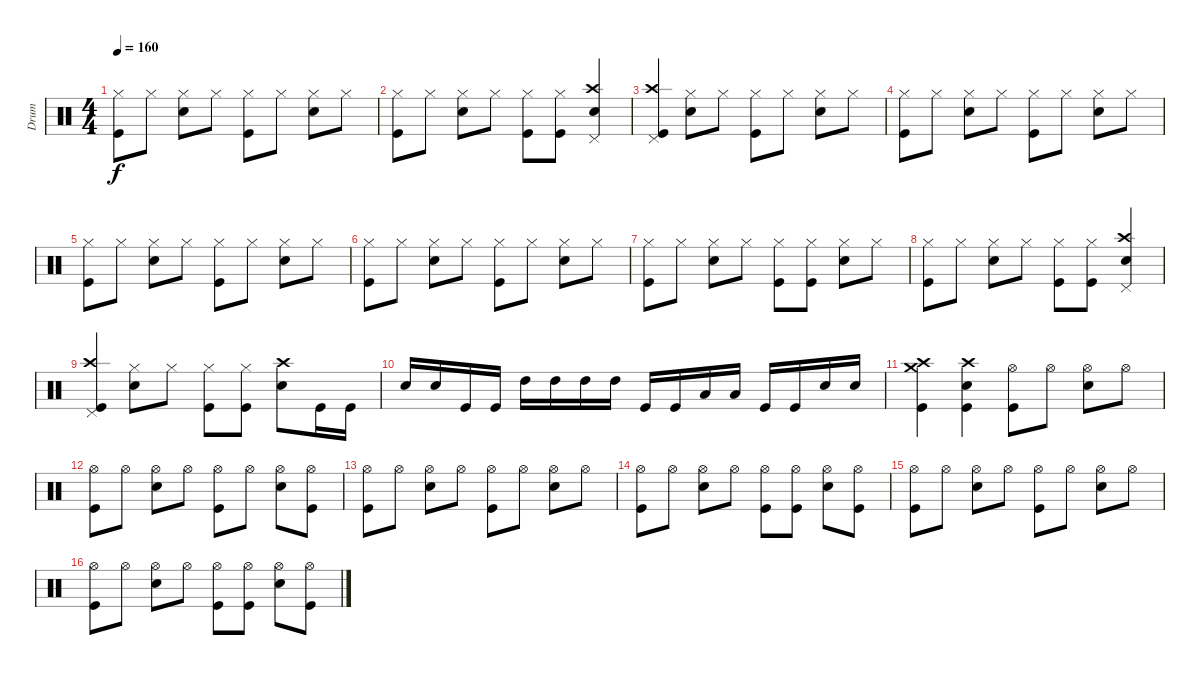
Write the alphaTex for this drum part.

\track ("Drum" "Drum") {instrument percussion}
\staff {score}
\articulation defaults
\ts (4 4)
\tempo 160
\clef neutral
\ks c
("Hi-Hat (closed)" "Kick (hit)").8{dy f} "Hi-Hat (closed)".8 ("Hi-Hat (closed)" "Snare (hit) 2").8 "Hi-Hat (closed)".8 ("Hi-Hat (closed)" "Kick (hit)").8 "Hi-Hat (closed)".8 ("Hi-Hat (closed)" "Snare (hit) 2").8 "Hi-Hat (closed)".8 |
("Hi-Hat (closed)" "Kick (hit)").8 "Hi-Hat (closed)".8 ("Hi-Hat (closed)" "Snare (hit) 2").8 "Hi-Hat (closed)".8 ("Hi-Hat (closed)" "Kick (hit)").8 ("Hi-Hat (closed)" "Kick (hit)").8 ("Crash high (hit)" "Pedal Hi-Hat (hit)" "Snare (hit) 2").4 |
("Crash high (hit)" "Pedal Hi-Hat (hit)" "Kick (hit)").4 ("Hi-Hat (closed)" "Snare (hit) 2").8 "Hi-Hat (closed)".8 ("Hi-Hat (closed)" "Kick (hit)").8 "Hi-Hat (closed)".8 ("Hi-Hat (closed)" "Snare (hit) 2").8 "Hi-Hat (closed)".8 |
("Hi-Hat (closed)" "Kick (hit)").8 "Hi-Hat (closed)".8 ("Hi-Hat (closed)" "Snare (hit) 2").8 "Hi-Hat (closed)".8 ("Hi-Hat (closed)" "Kick (hit)").8 "Hi-Hat (closed)".8 ("Hi-Hat (closed)" "Snare (hit) 2").8 "Hi-Hat (closed)".8 |
("Hi-Hat (closed)" "Kick (hit)").8 "Hi-Hat (closed)".8 ("Hi-Hat (closed)" "Snare (hit) 2").8 "Hi-Hat (closed)".8 ("Hi-Hat (closed)" "Kick (hit)").8 "Hi-Hat (closed)".8 ("Hi-Hat (closed)" "Snare (hit) 2").8 "Hi-Hat (closed)".8 |
("Hi-Hat (closed)" "Kick (hit)").8 "Hi-Hat (closed)".8 ("Hi-Hat (closed)" "Snare (hit) 2").8 "Hi-Hat (closed)".8 ("Hi-Hat (closed)" "Kick (hit)").8 "Hi-Hat (closed)".8 ("Hi-Hat (closed)" "Snare (hit) 2").8 "Hi-Hat (closed)".8 |
("Hi-Hat (closed)" "Kick (hit)").8 "Hi-Hat (closed)".8 ("Hi-Hat (closed)" "Snare (hit) 2").8 "Hi-Hat (closed)".8 ("Hi-Hat (closed)" "Kick (hit)").8 ("Hi-Hat (closed)" "Kick (hit)").8 ("Hi-Hat (closed)" "Snare (hit) 2").8 "Hi-Hat (closed)".8 |
("Hi-Hat (closed)" "Kick (hit)").8 "Hi-Hat (closed)".8 ("Hi-Hat (closed)" "Snare (hit) 2").8 "Hi-Hat (closed)".8 ("Hi-Hat (closed)" "Kick (hit)").8 ("Hi-Hat (closed)" "Kick (hit)").8 ("Crash high (hit)" "Pedal Hi-Hat (hit)" "Snare (hit) 2").4 |
("Crash high (hit)" "Pedal Hi-Hat (hit)" "Kick (hit)").4 ("Hi-Hat (closed)" "Snare (hit) 2").8 "Hi-Hat (closed)".8 ("Hi-Hat (closed)" "Kick (hit)").8 ("Hi-Hat (closed)" "Kick (hit)").8 ("Crash high (hit)" "Snare (hit) 2").8 "Kick (hit)".16 "Kick (hit)".16 |
"Snare (hit) 2".16 "Snare (hit) 2".16 "Kick (hit)".16 "Kick (hit)".16 "High Tom (hit)".16 "High Tom (hit)".16 "High Tom (hit)".16 "High Tom (hit)".16 "Kick (hit)".16 "Kick (hit)".16 "Low Tom (hit)".16 "Low Tom (hit)".16 "Kick (hit)".16 "Kick (hit)".16 "Snare (hit) 2".16 "Snare (hit) 2".16 |
("Crash high (hit)" "Crash medium (hit)" "Kick (hit)").4 ("Crash high (hit)" "Snare (hit) 2" "Kick (hit)").4 ("Hi-Hat (open)" "Kick (hit)").8 "Hi-Hat (open)".8 ("Hi-Hat (open)" "Snare (hit) 2").8 "Hi-Hat (open)".8 |
("Hi-Hat (open)" "Kick (hit)").8 "Hi-Hat (open)".8 ("Hi-Hat (open)" "Snare (hit) 2").8 "Hi-Hat (open)".8 ("Hi-Hat (open)" "Kick (hit)").8 "Hi-Hat (open)".8 ("Hi-Hat (open)" "Snare (hit) 2").8 ("Hi-Hat (open)" "Kick (hit)").8 |
("Hi-Hat (open)" "Kick (hit)").8 "Hi-Hat (open)".8 ("Hi-Hat (open)" "Snare (hit) 2").8 "Hi-Hat (open)".8 ("Hi-Hat (open)" "Kick (hit)").8 "Hi-Hat (open)".8 ("Hi-Hat (open)" "Snare (hit) 2").8 "Hi-Hat (open)".8 |
("Hi-Hat (open)" "Kick (hit)").8 "Hi-Hat (open)".8 ("Hi-Hat (open)" "Snare (hit) 2").8 "Hi-Hat (open)".8 ("Hi-Hat (open)" "Kick (hit)").8 ("Hi-Hat (open)" "Kick (hit)").8 ("Hi-Hat (open)" "Snare (hit) 2").8 ("Hi-Hat (open)" "Kick (hit)").8 |
("Hi-Hat (open)" "Kick (hit)").8 "Hi-Hat (open)".8 ("Hi-Hat (open)" "Snare (hit) 2").8 "Hi-Hat (open)".8 ("Hi-Hat (open)" "Kick (hit)").8 "Hi-Hat (open)".8 ("Hi-Hat (open)" "Snare (hit) 2").8 "Hi-Hat (open)".8 |
("Hi-Hat (open)" "Kick (hit)").8 "Hi-Hat (open)".8 ("Hi-Hat (open)" "Snare (hit) 2").8 "Hi-Hat (open)".8 ("Hi-Hat (open)" "Kick (hit)").8 ("Hi-Hat (open)" "Kick (hit)").8 ("Hi-Hat (open)" "Snare (hit) 2").8 ("Hi-Hat (open)" "Kick (hit)").8
